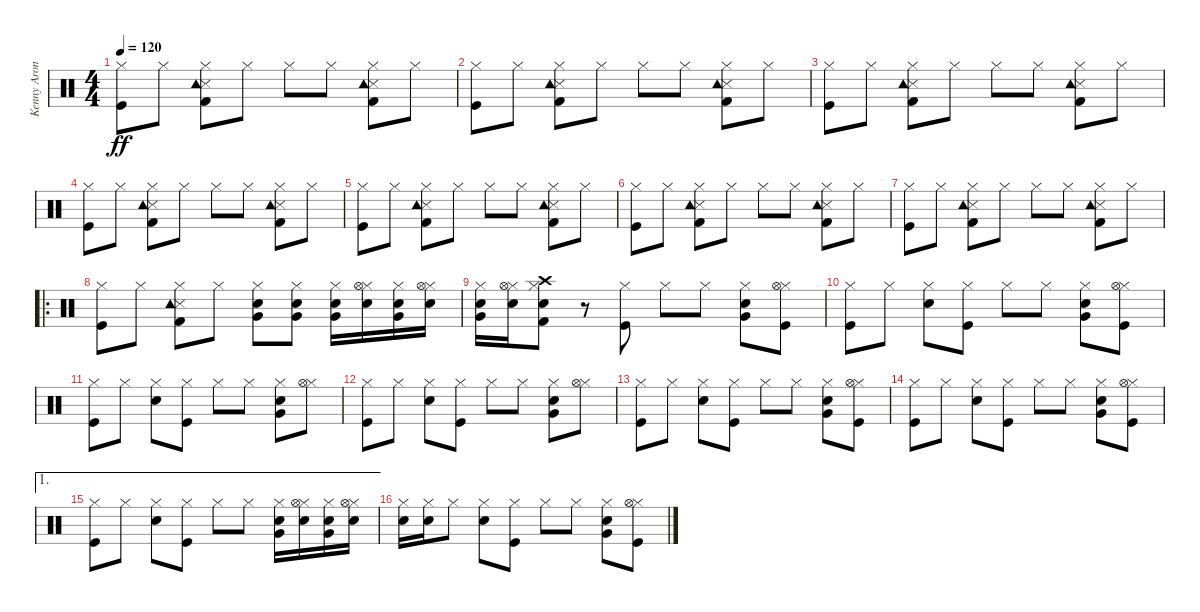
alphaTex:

\track ("Kenny Aronoff" "Kenny Aron") {instrument percussion}
\staff {score}
\articulation defaults
\ts (4 4)
\tempo 120
\clef neutral
\ks c
("Kick (hit)" "Hi-Hat (closed)").8{dy ff} "Hi-Hat (closed)".8 ("Kick (hit) 2" "Snare (side stick) 3" "Hi-Hat (closed)" "Tambourine (hit)").8 "Hi-Hat (closed)".8 "Hi-Hat (closed)".8 "Hi-Hat (closed)".8 ("Kick (hit) 2" "Snare (side stick) 3" "Hi-Hat (closed)" "Tambourine (hit)").8 "Hi-Hat (closed)".8 |
("Kick (hit)" "Hi-Hat (closed)").8 "Hi-Hat (closed)".8 ("Kick (hit) 2" "Snare (side stick) 3" "Hi-Hat (closed)" "Tambourine (hit)").8 "Hi-Hat (closed)".8 "Hi-Hat (closed)".8 "Hi-Hat (closed)".8 ("Kick (hit) 2" "Snare (side stick) 3" "Hi-Hat (closed)" "Tambourine (hit)").8 "Hi-Hat (closed)".8 |
("Kick (hit)" "Hi-Hat (closed)").8 "Hi-Hat (closed)".8 ("Kick (hit) 2" "Snare (side stick) 3" "Hi-Hat (closed)" "Tambourine (hit)").8 "Hi-Hat (closed)".8 "Hi-Hat (closed)".8 "Hi-Hat (closed)".8 ("Kick (hit) 2" "Snare (side stick) 3" "Hi-Hat (closed)" "Tambourine (hit)").8 "Hi-Hat (closed)".8 |
("Kick (hit)" "Hi-Hat (closed)").8 "Hi-Hat (closed)".8 ("Kick (hit) 2" "Snare (side stick) 3" "Hi-Hat (closed)" "Tambourine (hit)").8 "Hi-Hat (closed)".8 "Hi-Hat (closed)".8 "Hi-Hat (closed)".8 ("Kick (hit) 2" "Snare (side stick) 3" "Hi-Hat (closed)" "Tambourine (hit)").8 "Hi-Hat (closed)".8 |
("Kick (hit)" "Hi-Hat (closed)").8 "Hi-Hat (closed)".8 ("Kick (hit) 2" "Snare (side stick) 3" "Hi-Hat (closed)" "Tambourine (hit)").8 "Hi-Hat (closed)".8 "Hi-Hat (closed)".8 "Hi-Hat (closed)".8 ("Kick (hit) 2" "Snare (side stick) 3" "Hi-Hat (closed)" "Tambourine (hit)").8 "Hi-Hat (closed)".8 |
("Kick (hit)" "Hi-Hat (closed)").8 "Hi-Hat (closed)".8 ("Kick (hit) 2" "Snare (side stick) 3" "Hi-Hat (closed)" "Tambourine (hit)").8 "Hi-Hat (closed)".8 "Hi-Hat (closed)".8 "Hi-Hat (closed)".8 ("Kick (hit) 2" "Snare (side stick) 3" "Hi-Hat (closed)" "Tambourine (hit)").8 "Hi-Hat (closed)".8 |
("Kick (hit)" "Hi-Hat (closed)").8 "Hi-Hat (closed)".8 ("Kick (hit) 2" "Snare (side stick) 3" "Hi-Hat (closed)" "Tambourine (hit)").8 "Hi-Hat (closed)".8 "Hi-Hat (closed)".8 "Hi-Hat (closed)".8 ("Kick (hit) 2" "Snare (side stick) 3" "Hi-Hat (closed)" "Tambourine (hit)").8 "Hi-Hat (closed)".8 |
\ro
("Kick (hit)" "Hi-Hat (closed)").8 "Hi-Hat (closed)".8 ("Kick (hit) 2" "Snare (side stick) 3" "Hi-Hat (closed)" "Tambourine (hit)").8 "Hi-Hat (closed)".8 ("Snare (hit) 2" "Hi-Hat (closed)" "Very Low Tom (hit)").8 ("Snare (hit) 2" "Hi-Hat (closed)" "Very Low Tom (hit)").8 ("Snare (hit) 2" "Hi-Hat (closed)" "Very Low Tom (hit)").16 ("Snare (hit) 2" "Hi-Hat (closed)" "Hi-Hat (open)").16 ("Snare (hit) 2" "Hi-Hat (closed)" "Very Low Tom (hit)").16 ("Snare (hit) 2" "Hi-Hat (closed)" "Hi-Hat (open)").16 |
("Snare (hit) 2" "Hi-Hat (closed)" "Very Low Tom (hit)").16 ("Snare (hit) 2" "Hi-Hat (closed)" "Hi-Hat (open)").16 ("Snare (hit) 2" "Kick (hit) 2" "Hi-Hat (closed)" "Crash high (hit)").8 r.8 ("Kick (hit)" "Hi-Hat (closed)").8 "Hi-Hat (closed)".8 "Hi-Hat (closed)".8 ("Snare (hit) 2" "Hi-Hat (closed)" "Very Low Tom (hit)").8 ("Kick (hit)" "Hi-Hat (closed)" "Hi-Hat (open)").8 |
("Kick (hit)" "Hi-Hat (closed)").8 "Hi-Hat (closed)".8 ("Snare (hit) 2" "Hi-Hat (closed)").8 ("Kick (hit)" "Hi-Hat (closed)").8 "Hi-Hat (closed)".8 "Hi-Hat (closed)".8 ("Snare (hit) 2" "Hi-Hat (closed)" "Very Low Tom (hit)").8 ("Kick (hit)" "Hi-Hat (closed)" "Hi-Hat (open)").8 |
("Kick (hit)" "Hi-Hat (closed)").8 "Hi-Hat (closed)".8 ("Snare (hit) 2" "Hi-Hat (closed)").8 ("Kick (hit)" "Hi-Hat (closed)").8 "Hi-Hat (closed)".8 "Hi-Hat (closed)".8 ("Snare (hit) 2" "Hi-Hat (closed)" "Very Low Tom (hit)").8 ("Hi-Hat (closed)" "Hi-Hat (open)").8 |
("Kick (hit)" "Hi-Hat (closed)").8 "Hi-Hat (closed)".8 ("Snare (hit) 2" "Hi-Hat (closed)").8 ("Kick (hit)" "Hi-Hat (closed)").8 "Hi-Hat (closed)".8 "Hi-Hat (closed)".8 ("Snare (hit) 2" "Hi-Hat (closed)" "Very Low Tom (hit)").8 ("Hi-Hat (closed)" "Hi-Hat (open)").8 |
("Kick (hit)" "Hi-Hat (closed)").8 "Hi-Hat (closed)".8 ("Snare (hit) 2" "Hi-Hat (closed)").8 ("Kick (hit)" "Hi-Hat (closed)").8 "Hi-Hat (closed)".8 "Hi-Hat (closed)".8 ("Snare (hit) 2" "Hi-Hat (closed)" "Very Low Tom (hit)").8 ("Kick (hit)" "Hi-Hat (closed)" "Hi-Hat (open)").8 |
("Kick (hit)" "Hi-Hat (closed)").8 "Hi-Hat (closed)".8 ("Snare (hit) 2" "Hi-Hat (closed)").8 ("Kick (hit)" "Hi-Hat (closed)").8 "Hi-Hat (closed)".8 "Hi-Hat (closed)".8 ("Snare (hit) 2" "Hi-Hat (closed)" "Very Low Tom (hit)").8 ("Kick (hit)" "Hi-Hat (closed)" "Hi-Hat (open)").8 |
\ae 1
("Kick (hit)" "Hi-Hat (closed)").8 "Hi-Hat (closed)".8 ("Snare (hit) 2" "Hi-Hat (closed)").8 ("Kick (hit)" "Hi-Hat (closed)").8 "Hi-Hat (closed)".8 "Hi-Hat (closed)".8 ("Snare (hit) 2" "Hi-Hat (closed)" "Very Low Tom (hit)").16 ("Snare (hit) 2" "Hi-Hat (closed)" "Hi-Hat (open)").16 ("Snare (hit) 2" "Hi-Hat (closed)" "Very Low Tom (hit)").16 ("Snare (hit) 2" "Hi-Hat (closed)" "Hi-Hat (open)").16 |
("Snare (hit) 2" "Hi-Hat (closed)").16 ("Snare (hit) 2" "Hi-Hat (closed)").16 "Hi-Hat (closed)".8 ("Snare (hit) 2" "Hi-Hat (closed)").8 ("Kick (hit)" "Hi-Hat (closed)").8 "Hi-Hat (closed)".8 "Hi-Hat (closed)".8 ("Snare (hit) 2" "Hi-Hat (closed)" "Very Low Tom (hit)").8 ("Kick (hit)" "Hi-Hat (closed)" "Hi-Hat (open)").8
